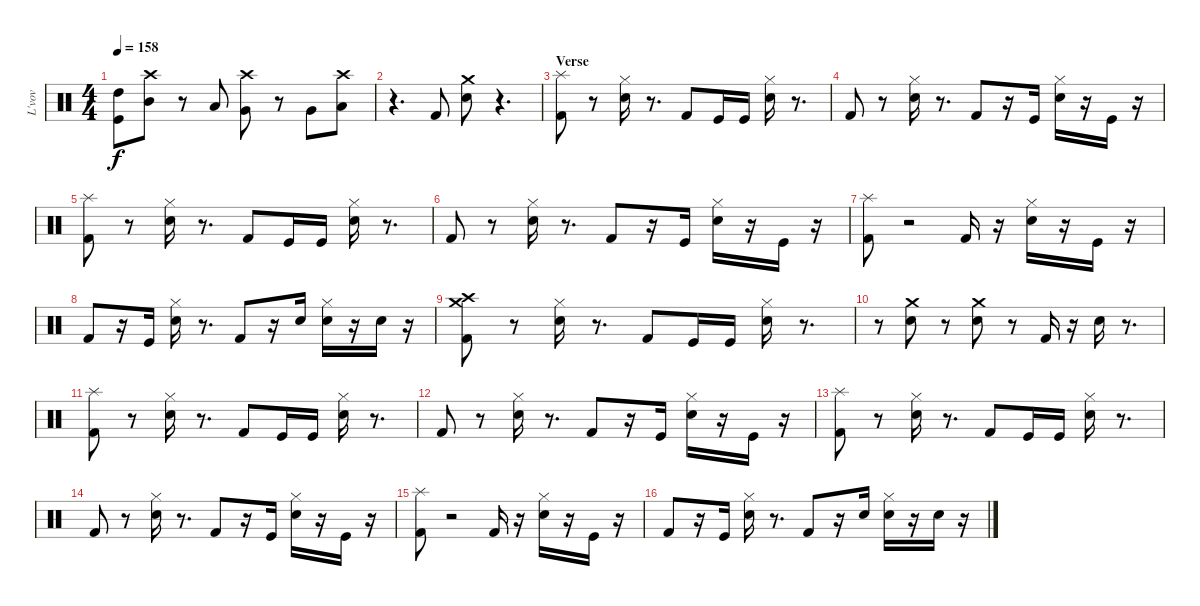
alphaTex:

\track ("L'vov " "L'vov ") {instrument percussion}
\staff {score}
\articulation defaults
\ts (4 4)
\tempo 158
\clef neutral
\ks c
("Kick (hit)" "High Tom (hit)").8{dy f} ("Mid Tom (hit)" "Crash high (hit)").8 r.8 "Low Tom (hit)".8 ("Very Low Tom (hit)" "Crash high (hit)").8 r.8 "Very Low Tom (hit)".8 ("Low Floor Tom (hit)" "Crash high (hit)").8 |
r.4{d} "Kick (hit) 2".8 ("Snare (hit) 2" "Crash medium (hit)").8 r.4{d} |
\section ("" "Verse")
("Splash (hit)" "Kick (hit) 2").8 r.8 ("Snare (hit) 2" "Hi-Hat (closed)").16 r.8{d} "Kick (hit) 2".8 "Kick (hit)".16 "Kick (hit)".16 ("Snare (hit) 2" "Hi-Hat (closed)").16 r.8{d} |
"Kick (hit) 2".8 r.8 ("Snare (hit) 2" "Hi-Hat (closed)").16 r.8{d} "Kick (hit) 2".8 r.16 "Kick (hit)".16 ("Electric Snare (hit)" "Hi-Hat (closed)").16 r.16 "Kick (hit)".16 r.16 |
("Splash (hit)" "Kick (hit) 2").8 r.8 ("Snare (hit) 2" "Hi-Hat (closed)").16 r.8{d} "Kick (hit) 2".8 "Kick (hit)".16 "Kick (hit)".16 ("Snare (hit) 2" "Hi-Hat (closed)").16 r.8{d} |
"Kick (hit) 2".8 r.8 ("Snare (hit) 2" "Hi-Hat (closed)").16 r.8{d} "Kick (hit) 2".8 r.16 "Kick (hit)".16 ("Electric Snare (hit)" "Hi-Hat (closed)").16 r.16 "Kick (hit)".16 r.16 |
("Splash (hit)" "Kick (hit) 2").8 r.2 "Kick (hit) 2".16 r.16 ("Snare (hit) 2" "Hi-Hat (closed)").16 r.16 "Kick (hit)".16 r.16 |
"Kick (hit) 2".8 r.16 "Kick (hit)".16 ("Snare (hit) 2" "Hi-Hat (closed)").16 r.8{d} "Kick (hit) 2".8 r.16 "Electric Snare (hit)".16 ("Snare (hit) 2" "Hi-Hat (closed)").16 r.16 "Electric Snare (hit)".16 r.16 |
("Crash high (hit)" "Kick (hit) 2" "Crash medium (hit)").8 r.8 ("Snare (hit) 2" "Hi-Hat (closed)").16 r.8{d} "Kick (hit) 2".8 "Kick (hit)".16 "Kick (hit)".16 ("Snare (hit) 2" "Hi-Hat (closed)").16 r.8{d} |
r.8 ("Crash medium (hit)" "Snare (hit) 2").8 r.8 ("Crash medium (hit)" "Snare (hit) 2").8 r.8 "Kick (hit) 2".16 r.16 "Electric Snare (hit)".16 r.8{d} |
("Splash (hit)" "Kick (hit) 2").8 r.8 ("Snare (hit) 2" "Hi-Hat (closed)").16 r.8{d} "Kick (hit) 2".8 "Kick (hit)".16 "Kick (hit)".16 ("Snare (hit) 2" "Hi-Hat (closed)").16 r.8{d} |
"Kick (hit) 2".8 r.8 ("Snare (hit) 2" "Hi-Hat (closed)").16 r.8{d} "Kick (hit) 2".8 r.16 "Kick (hit)".16 ("Electric Snare (hit)" "Hi-Hat (closed)").16 r.16 "Kick (hit)".16 r.16 |
("Splash (hit)" "Kick (hit) 2").8 r.8 ("Snare (hit) 2" "Hi-Hat (closed)").16 r.8{d} "Kick (hit) 2".8 "Kick (hit)".16 "Kick (hit)".16 ("Snare (hit) 2" "Hi-Hat (closed)").16 r.8{d} |
"Kick (hit) 2".8 r.8 ("Snare (hit) 2" "Hi-Hat (closed)").16 r.8{d} "Kick (hit) 2".8 r.16 "Kick (hit)".16 ("Electric Snare (hit)" "Hi-Hat (closed)").16 r.16 "Kick (hit)".16 r.16 |
("Splash (hit)" "Kick (hit) 2").8 r.2 "Kick (hit) 2".16 r.16 ("Snare (hit) 2" "Hi-Hat (closed)").16 r.16 "Kick (hit)".16 r.16 |
"Kick (hit) 2".8 r.16 "Kick (hit)".16 ("Snare (hit) 2" "Hi-Hat (closed)").16 r.8{d} "Kick (hit) 2".8 r.16 "Electric Snare (hit)".16 ("Snare (hit) 2" "Hi-Hat (closed)").16 r.16 "Electric Snare (hit)".16 r.16
